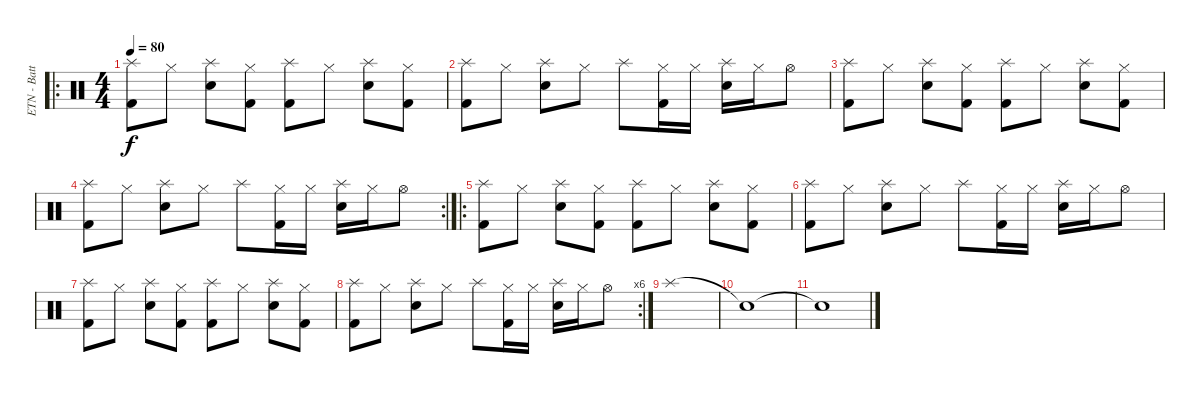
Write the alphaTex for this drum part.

\track ("ETN - Batterie" "ETN - Batt") {instrument percussion}
\staff {score}
\articulation defaults
\ro
\ts (4 4)
\tempo 80
\clef neutral
\ks c
("Splash (hit)" "Kick (hit) 2").8{dy f} "Hi-Hat (closed)".8 ("Splash (hit)" "Snare (hit) 2").8 ("Hi-Hat (closed)" "Kick (hit) 2").8 ("Splash (hit)" "Kick (hit) 2").8 "Hi-Hat (closed)".8 ("Splash (hit)" "Snare (hit) 2").8 ("Hi-Hat (closed)" "Kick (hit) 2").8 |
("Splash (hit)" "Kick (hit) 2").8 "Hi-Hat (closed)".8 ("Splash (hit)" "Snare (hit) 2").8 "Hi-Hat (closed)".8 "Splash (hit)".8 ("Hi-Hat (closed)" "Kick (hit) 2").16 "Hi-Hat (closed)".16 ("Splash (hit)" "Snare (hit) 2").16 "Hi-Hat (closed)".16 "Hi-Hat (open)".8 |
("Splash (hit)" "Kick (hit) 2").8 "Hi-Hat (closed)".8 ("Splash (hit)" "Snare (hit) 2").8 ("Hi-Hat (closed)" "Kick (hit) 2").8 ("Splash (hit)" "Kick (hit) 2").8 "Hi-Hat (closed)".8 ("Splash (hit)" "Snare (hit) 2").8 ("Hi-Hat (closed)" "Kick (hit) 2").8 |
\rc 2
("Splash (hit)" "Kick (hit) 2").8 "Hi-Hat (closed)".8 ("Splash (hit)" "Snare (hit) 2").8 "Hi-Hat (closed)".8 "Splash (hit)".8 ("Hi-Hat (closed)" "Kick (hit) 2").16 "Hi-Hat (closed)".16 ("Splash (hit)" "Snare (hit) 2").16 "Hi-Hat (closed)".16 "Hi-Hat (open)".8 |
\ro
("Splash (hit)" "Kick (hit) 2").8 "Hi-Hat (closed)".8 ("Splash (hit)" "Snare (hit) 2").8 ("Hi-Hat (closed)" "Kick (hit) 2").8 ("Splash (hit)" "Kick (hit) 2").8 "Hi-Hat (closed)".8 ("Splash (hit)" "Snare (hit) 2").8 ("Hi-Hat (closed)" "Kick (hit) 2").8 |
("Splash (hit)" "Kick (hit) 2").8 "Hi-Hat (closed)".8 ("Splash (hit)" "Snare (hit) 2").8 "Hi-Hat (closed)".8 "Splash (hit)".8 ("Hi-Hat (closed)" "Kick (hit) 2").16 "Hi-Hat (closed)".16 ("Splash (hit)" "Snare (hit) 2").16 "Hi-Hat (closed)".16 "Hi-Hat (open)".8 |
("Splash (hit)" "Kick (hit) 2").8 "Hi-Hat (closed)".8 ("Splash (hit)" "Snare (hit) 2").8 ("Hi-Hat (closed)" "Kick (hit) 2").8 ("Splash (hit)" "Kick (hit) 2").8 "Hi-Hat (closed)".8 ("Splash (hit)" "Snare (hit) 2").8 ("Hi-Hat (closed)" "Kick (hit) 2").8 |
\rc 6
("Splash (hit)" "Kick (hit) 2").8 "Hi-Hat (closed)".8 ("Splash (hit)" "Snare (hit) 2").8 "Hi-Hat (closed)".8 "Splash (hit)".8 ("Hi-Hat (closed)" "Kick (hit) 2").16 "Hi-Hat (closed)".16 ("Splash (hit)" "Snare (hit) 2").16 "Hi-Hat (closed)".16 "Hi-Hat (open)".8 |
"Splash (hit)".1 |
"Snare (hit)"{t}.1 |
"Snare (hit)"{t}.1
